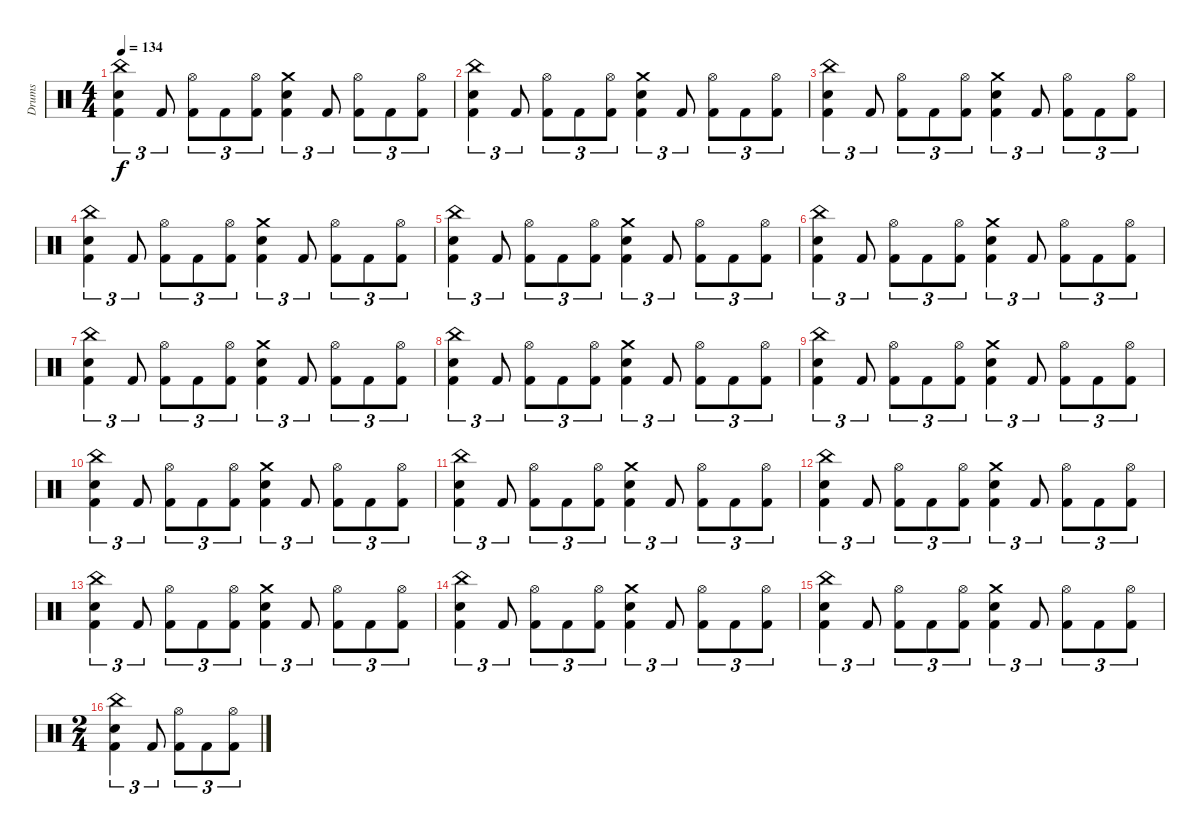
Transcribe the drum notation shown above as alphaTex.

\track ("Drums" "Drums") {instrument percussion}
\staff {score}
\articulation defaults
\ts (4 4)
\tempo 134
\clef neutral
\ks c
("China (hit)" "Electric Snare (hit)" "Kick (hit) 2").4{tu (3 2) dy f} "Kick (hit) 2".8{tu (3 2)} ("Hi-Hat (open)" "Kick (hit) 2").8{tu (3 2)} "Kick (hit) 2".8{tu (3 2)} ("Hi-Hat (open)" "Kick (hit) 2").8{tu (3 2)} ("Crash medium (hit)" "Electric Snare (hit)" "Kick (hit) 2").4{tu (3 2)} "Kick (hit) 2".8{tu (3 2)} ("Hi-Hat (open)" "Kick (hit) 2").8{tu (3 2)} "Kick (hit) 2".8{tu (3 2)} ("Hi-Hat (open)" "Kick (hit) 2").8{tu (3 2)} |
("China (hit)" "Electric Snare (hit)" "Kick (hit) 2").4{tu (3 2)} "Kick (hit) 2".8{tu (3 2)} ("Hi-Hat (open)" "Kick (hit) 2").8{tu (3 2)} "Kick (hit) 2".8{tu (3 2)} ("Hi-Hat (open)" "Kick (hit) 2").8{tu (3 2)} ("Crash medium (hit)" "Electric Snare (hit)" "Kick (hit) 2").4{tu (3 2)} "Kick (hit) 2".8{tu (3 2)} ("Hi-Hat (open)" "Kick (hit) 2").8{tu (3 2)} "Kick (hit) 2".8{tu (3 2)} ("Hi-Hat (open)" "Kick (hit) 2").8{tu (3 2)} |
("China (hit)" "Electric Snare (hit)" "Kick (hit) 2").4{tu (3 2)} "Kick (hit) 2".8{tu (3 2)} ("Hi-Hat (open)" "Kick (hit) 2").8{tu (3 2)} "Kick (hit) 2".8{tu (3 2)} ("Hi-Hat (open)" "Kick (hit) 2").8{tu (3 2)} ("Crash medium (hit)" "Electric Snare (hit)" "Kick (hit) 2").4{tu (3 2)} "Kick (hit) 2".8{tu (3 2)} ("Hi-Hat (open)" "Kick (hit) 2").8{tu (3 2)} "Kick (hit) 2".8{tu (3 2)} ("Hi-Hat (open)" "Kick (hit) 2").8{tu (3 2)} |
("China (hit)" "Electric Snare (hit)" "Kick (hit) 2").4{tu (3 2)} "Kick (hit) 2".8{tu (3 2)} ("Hi-Hat (open)" "Kick (hit) 2").8{tu (3 2)} "Kick (hit) 2".8{tu (3 2)} ("Hi-Hat (open)" "Kick (hit) 2").8{tu (3 2)} ("Crash medium (hit)" "Electric Snare (hit)" "Kick (hit) 2").4{tu (3 2)} "Kick (hit) 2".8{tu (3 2)} ("Hi-Hat (open)" "Kick (hit) 2").8{tu (3 2)} "Kick (hit) 2".8{tu (3 2)} ("Hi-Hat (open)" "Kick (hit) 2").8{tu (3 2)} |
("China (hit)" "Electric Snare (hit)" "Kick (hit) 2").4{tu (3 2)} "Kick (hit) 2".8{tu (3 2)} ("Hi-Hat (open)" "Kick (hit) 2").8{tu (3 2)} "Kick (hit) 2".8{tu (3 2)} ("Hi-Hat (open)" "Kick (hit) 2").8{tu (3 2)} ("Crash medium (hit)" "Electric Snare (hit)" "Kick (hit) 2").4{tu (3 2)} "Kick (hit) 2".8{tu (3 2)} ("Hi-Hat (open)" "Kick (hit) 2").8{tu (3 2)} "Kick (hit) 2".8{tu (3 2)} ("Hi-Hat (open)" "Kick (hit) 2").8{tu (3 2)} |
("China (hit)" "Electric Snare (hit)" "Kick (hit) 2").4{tu (3 2)} "Kick (hit) 2".8{tu (3 2)} ("Hi-Hat (open)" "Kick (hit) 2").8{tu (3 2)} "Kick (hit) 2".8{tu (3 2)} ("Hi-Hat (open)" "Kick (hit) 2").8{tu (3 2)} ("Crash medium (hit)" "Electric Snare (hit)" "Kick (hit) 2").4{tu (3 2)} "Kick (hit) 2".8{tu (3 2)} ("Hi-Hat (open)" "Kick (hit) 2").8{tu (3 2)} "Kick (hit) 2".8{tu (3 2)} ("Hi-Hat (open)" "Kick (hit) 2").8{tu (3 2)} |
("China (hit)" "Electric Snare (hit)" "Kick (hit) 2").4{tu (3 2)} "Kick (hit) 2".8{tu (3 2)} ("Hi-Hat (open)" "Kick (hit) 2").8{tu (3 2)} "Kick (hit) 2".8{tu (3 2)} ("Hi-Hat (open)" "Kick (hit) 2").8{tu (3 2)} ("Crash medium (hit)" "Electric Snare (hit)" "Kick (hit) 2").4{tu (3 2)} "Kick (hit) 2".8{tu (3 2)} ("Hi-Hat (open)" "Kick (hit) 2").8{tu (3 2)} "Kick (hit) 2".8{tu (3 2)} ("Hi-Hat (open)" "Kick (hit) 2").8{tu (3 2)} |
("China (hit)" "Electric Snare (hit)" "Kick (hit) 2").4{tu (3 2)} "Kick (hit) 2".8{tu (3 2)} ("Hi-Hat (open)" "Kick (hit) 2").8{tu (3 2)} "Kick (hit) 2".8{tu (3 2)} ("Hi-Hat (open)" "Kick (hit) 2").8{tu (3 2)} ("Crash medium (hit)" "Electric Snare (hit)" "Kick (hit) 2").4{tu (3 2)} "Kick (hit) 2".8{tu (3 2)} ("Hi-Hat (open)" "Kick (hit) 2").8{tu (3 2)} "Kick (hit) 2".8{tu (3 2)} ("Hi-Hat (open)" "Kick (hit) 2").8{tu (3 2)} |
("China (hit)" "Electric Snare (hit)" "Kick (hit) 2").4{tu (3 2)} "Kick (hit) 2".8{tu (3 2)} ("Hi-Hat (open)" "Kick (hit) 2").8{tu (3 2)} "Kick (hit) 2".8{tu (3 2)} ("Hi-Hat (open)" "Kick (hit) 2").8{tu (3 2)} ("Crash medium (hit)" "Electric Snare (hit)" "Kick (hit) 2").4{tu (3 2)} "Kick (hit) 2".8{tu (3 2)} ("Hi-Hat (open)" "Kick (hit) 2").8{tu (3 2)} "Kick (hit) 2".8{tu (3 2)} ("Hi-Hat (open)" "Kick (hit) 2").8{tu (3 2)} |
("China (hit)" "Electric Snare (hit)" "Kick (hit) 2").4{tu (3 2)} "Kick (hit) 2".8{tu (3 2)} ("Hi-Hat (open)" "Kick (hit) 2").8{tu (3 2)} "Kick (hit) 2".8{tu (3 2)} ("Hi-Hat (open)" "Kick (hit) 2").8{tu (3 2)} ("Crash medium (hit)" "Electric Snare (hit)" "Kick (hit) 2").4{tu (3 2)} "Kick (hit) 2".8{tu (3 2)} ("Hi-Hat (open)" "Kick (hit) 2").8{tu (3 2)} "Kick (hit) 2".8{tu (3 2)} ("Hi-Hat (open)" "Kick (hit) 2").8{tu (3 2)} |
("China (hit)" "Electric Snare (hit)" "Kick (hit) 2").4{tu (3 2)} "Kick (hit) 2".8{tu (3 2)} ("Hi-Hat (open)" "Kick (hit) 2").8{tu (3 2)} "Kick (hit) 2".8{tu (3 2)} ("Hi-Hat (open)" "Kick (hit) 2").8{tu (3 2)} ("Crash medium (hit)" "Electric Snare (hit)" "Kick (hit) 2").4{tu (3 2)} "Kick (hit) 2".8{tu (3 2)} ("Hi-Hat (open)" "Kick (hit) 2").8{tu (3 2)} "Kick (hit) 2".8{tu (3 2)} ("Hi-Hat (open)" "Kick (hit) 2").8{tu (3 2)} |
("China (hit)" "Electric Snare (hit)" "Kick (hit) 2").4{tu (3 2)} "Kick (hit) 2".8{tu (3 2)} ("Hi-Hat (open)" "Kick (hit) 2").8{tu (3 2)} "Kick (hit) 2".8{tu (3 2)} ("Hi-Hat (open)" "Kick (hit) 2").8{tu (3 2)} ("Crash medium (hit)" "Electric Snare (hit)" "Kick (hit) 2").4{tu (3 2)} "Kick (hit) 2".8{tu (3 2)} ("Hi-Hat (open)" "Kick (hit) 2").8{tu (3 2)} "Kick (hit) 2".8{tu (3 2)} ("Hi-Hat (open)" "Kick (hit) 2").8{tu (3 2)} |
("China (hit)" "Electric Snare (hit)" "Kick (hit) 2").4{tu (3 2)} "Kick (hit) 2".8{tu (3 2)} ("Hi-Hat (open)" "Kick (hit) 2").8{tu (3 2)} "Kick (hit) 2".8{tu (3 2)} ("Hi-Hat (open)" "Kick (hit) 2").8{tu (3 2)} ("Crash medium (hit)" "Electric Snare (hit)" "Kick (hit) 2").4{tu (3 2)} "Kick (hit) 2".8{tu (3 2)} ("Hi-Hat (open)" "Kick (hit) 2").8{tu (3 2)} "Kick (hit) 2".8{tu (3 2)} ("Hi-Hat (open)" "Kick (hit) 2").8{tu (3 2)} |
("China (hit)" "Electric Snare (hit)" "Kick (hit) 2").4{tu (3 2)} "Kick (hit) 2".8{tu (3 2)} ("Hi-Hat (open)" "Kick (hit) 2").8{tu (3 2)} "Kick (hit) 2".8{tu (3 2)} ("Hi-Hat (open)" "Kick (hit) 2").8{tu (3 2)} ("Crash medium (hit)" "Electric Snare (hit)" "Kick (hit) 2").4{tu (3 2)} "Kick (hit) 2".8{tu (3 2)} ("Hi-Hat (open)" "Kick (hit) 2").8{tu (3 2)} "Kick (hit) 2".8{tu (3 2)} ("Hi-Hat (open)" "Kick (hit) 2").8{tu (3 2)} |
("China (hit)" "Electric Snare (hit)" "Kick (hit) 2").4{tu (3 2)} "Kick (hit) 2".8{tu (3 2)} ("Hi-Hat (open)" "Kick (hit) 2").8{tu (3 2)} "Kick (hit) 2".8{tu (3 2)} ("Hi-Hat (open)" "Kick (hit) 2").8{tu (3 2)} ("Crash medium (hit)" "Electric Snare (hit)" "Kick (hit) 2").4{tu (3 2)} "Kick (hit) 2".8{tu (3 2)} ("Hi-Hat (open)" "Kick (hit) 2").8{tu (3 2)} "Kick (hit) 2".8{tu (3 2)} ("Hi-Hat (open)" "Kick (hit) 2").8{tu (3 2)} |
\ts (2 4)
("China (hit)" "Electric Snare (hit)" "Kick (hit) 2").4{tu (3 2)} "Kick (hit) 2".8{tu (3 2)} ("Hi-Hat (open)" "Kick (hit) 2").8{tu (3 2)} "Kick (hit) 2".8{tu (3 2)} ("Hi-Hat (open)" "Kick (hit) 2").8{tu (3 2)}
